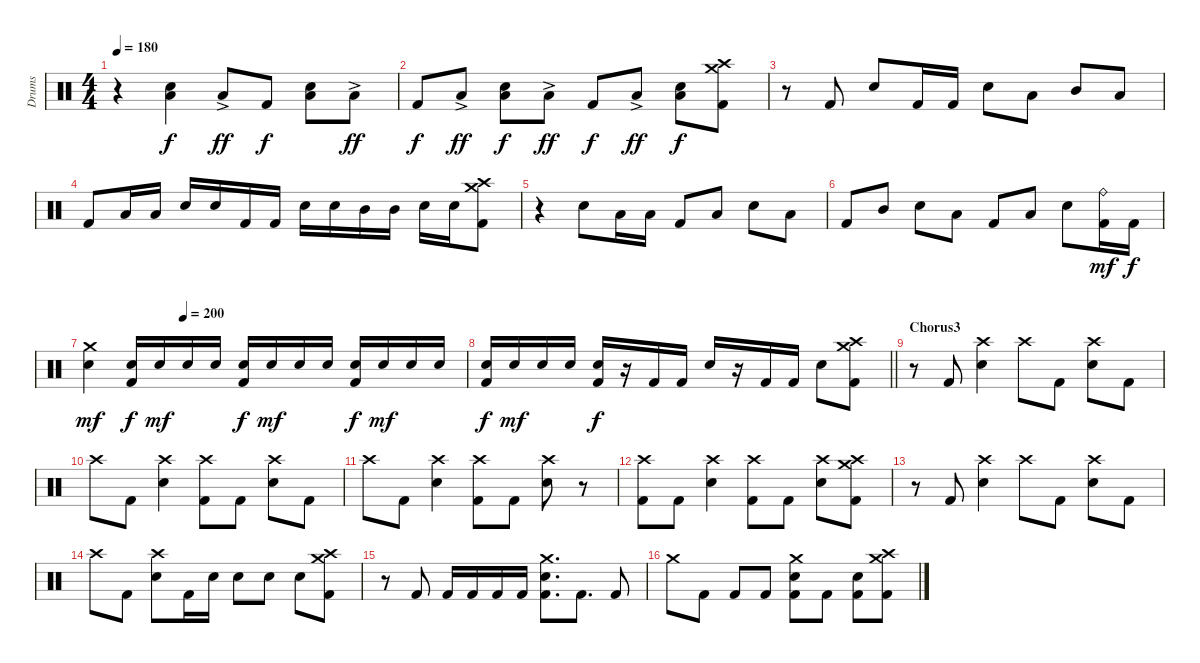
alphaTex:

\track ("Drums" "Drums") {instrument percussion}
\staff {score}
\articulation defaults
\ts (4 4)
\tempo 180
\clef neutral
\ks c
r.4{dy f} ("Low Tom (hit)" "Electric Snare (hit)").4 "Low Tom (hit)"{ac}.8{dy ff} "Kick (hit) 2".8{dy f} ("Low Tom (hit)" "Electric Snare (hit)").8 "Low Tom (hit)"{ac}.8{dy ff} |
"Kick (hit) 2".8{dy f} "Low Tom (hit)"{ac}.8{dy ff} ("Low Tom (hit)" "Electric Snare (hit)").8{dy f} "Low Tom (hit)"{ac}.8{dy ff} "Kick (hit) 2".8{dy f} "Low Tom (hit)"{ac}.8{dy ff} ("Low Tom (hit)" "Electric Snare (hit)").8{dy f} ("Crash medium (hit)" "Crash high (hit)" "Kick (hit) 2").8 |
r.8 "Kick (hit) 2".8 "Electric Snare (hit)".8 "Kick (hit) 2".16 "Kick (hit) 2".16 "Electric Snare (hit)".8 "Low Tom (hit)".8 "Mid Tom (hit)".8 "Low Tom (hit)".8 |
"Kick (hit) 2".8 "Low Tom (hit)".16 "Low Tom (hit)".16 "Electric Snare (hit)".16 "Electric Snare (hit)".16 "Kick (hit) 2".16 "Kick (hit) 2".16 "Electric Snare (hit)".16 "Electric Snare (hit)".16 "Mid Tom (hit)".16 "Mid Tom (hit)".16 "Electric Snare (hit)".16 "Electric Snare (hit)".16 ("Crash medium (hit)" "Crash high (hit)" "Kick (hit) 2").8 |
r.4 "Electric Snare (hit)".8 "Low Tom (hit)".16 "Low Tom (hit)".16 "Kick (hit) 2".8 "Low Tom (hit)".8 "Electric Snare (hit)".8 "Low Tom (hit)".8 |
"Kick (hit) 2".8 "Mid Tom (hit)".8 "Electric Snare (hit)".8 "Low Tom (hit)".8 "Kick (hit) 2".8 "Low Tom (hit)".8 "Electric Snare (hit)".8 ("Ride (bell)" "Kick (hit) 2").16{dy mf} "Kick (hit) 2".16{dy f} |
\tempo (200 0.25)
("Crash medium (hit)" "Electric Snare (hit)").4{dy mf} ("Electric Snare (hit)" "Kick (hit) 2").16{dy f} "Electric Snare (hit)".16{dy mf} "Electric Snare (hit)".16 "Electric Snare (hit)".16 ("Electric Snare (hit)" "Kick (hit) 2").16{dy f} "Electric Snare (hit)".16{dy mf} "Electric Snare (hit)".16 "Electric Snare (hit)".16 ("Electric Snare (hit)" "Kick (hit) 2").16{dy f} "Electric Snare (hit)".16{dy mf} "Electric Snare (hit)".16 "Electric Snare (hit)".16 |
\barLineRight lightlight
("Electric Snare (hit)" "Kick (hit) 2").16{dy f} "Electric Snare (hit)".16{dy mf} "Electric Snare (hit)".16 "Electric Snare (hit)".16 ("Electric Snare (hit)" "Kick (hit) 2").16{dy f} r.16 "Kick (hit) 2".16 "Kick (hit) 2".16 "Electric Snare (hit)".16 r.16 "Kick (hit) 2".16 "Kick (hit) 2".16 "Electric Snare (hit)".8 ("Crash medium (hit)" "Crash high (hit)" "Kick (hit) 2").8 |
\section ("" "Chorus3")
r.8 "Kick (hit) 2".8 ("Crash high (hit)" "Electric Snare (hit)").4 "Crash high (hit)".8 "Kick (hit) 2".8 ("Crash high (hit)" "Electric Snare (hit)").8 "Kick (hit) 2".8 |
"Crash high (hit)".8 "Kick (hit) 2".8 ("Crash high (hit)" "Electric Snare (hit)").4 ("Crash high (hit)" "Kick (hit) 2").8 "Kick (hit) 2".8 ("Crash high (hit)" "Electric Snare (hit)").8 "Kick (hit) 2".8 |
"Crash high (hit)".8 "Kick (hit) 2".8 ("Crash high (hit)" "Electric Snare (hit)").4 ("Crash high (hit)" "Kick (hit) 2").8 "Kick (hit) 2".8 ("Crash high (hit)" "Electric Snare (hit)").8 r.8 |
("Crash high (hit)" "Kick (hit) 2").8 "Kick (hit) 2".8 ("Crash high (hit)" "Electric Snare (hit)").4 ("Crash high (hit)" "Kick (hit) 2").8 "Kick (hit) 2".8 ("Crash high (hit)" "Electric Snare (hit)").8 ("Crash high (hit)" "Crash medium (hit)" "Kick (hit) 2").8 |
r.8 "Kick (hit) 2".8 ("Crash high (hit)" "Electric Snare (hit)").4 "Crash high (hit)".8 "Kick (hit) 2".8 ("Crash high (hit)" "Electric Snare (hit)").8 "Kick (hit) 2".8 |
"Crash high (hit)".8 "Kick (hit) 2".8 ("Crash high (hit)" "Electric Snare (hit)").8 "Kick (hit) 2".16 "Electric Snare (hit)".16 "Electric Snare (hit)".8 "Electric Snare (hit)".8 "Electric Snare (hit)".8 ("Crash high (hit)" "Crash medium (hit)" "Kick (hit) 2").8 |
r.8 "Kick (hit) 2".8 "Kick (hit) 2".16 "Kick (hit) 2".16 "Kick (hit) 2".16 "Kick (hit) 2".16 ("Crash medium (hit)" "Electric Snare (hit)" "Kick (hit) 2").8{d} "Kick (hit) 2".8{d} "Kick (hit) 2".8 |
"Crash medium (hit)".8 "Kick (hit) 2".8 "Kick (hit) 2".8 "Kick (hit) 2".8 ("Crash medium (hit)" "Electric Snare (hit)" "Kick (hit) 2").8 "Kick (hit) 2".8 ("Electric Snare (hit)" "Kick (hit) 2").8 ("Crash medium (hit)" "Crash high (hit)" "Kick (hit) 2").8
